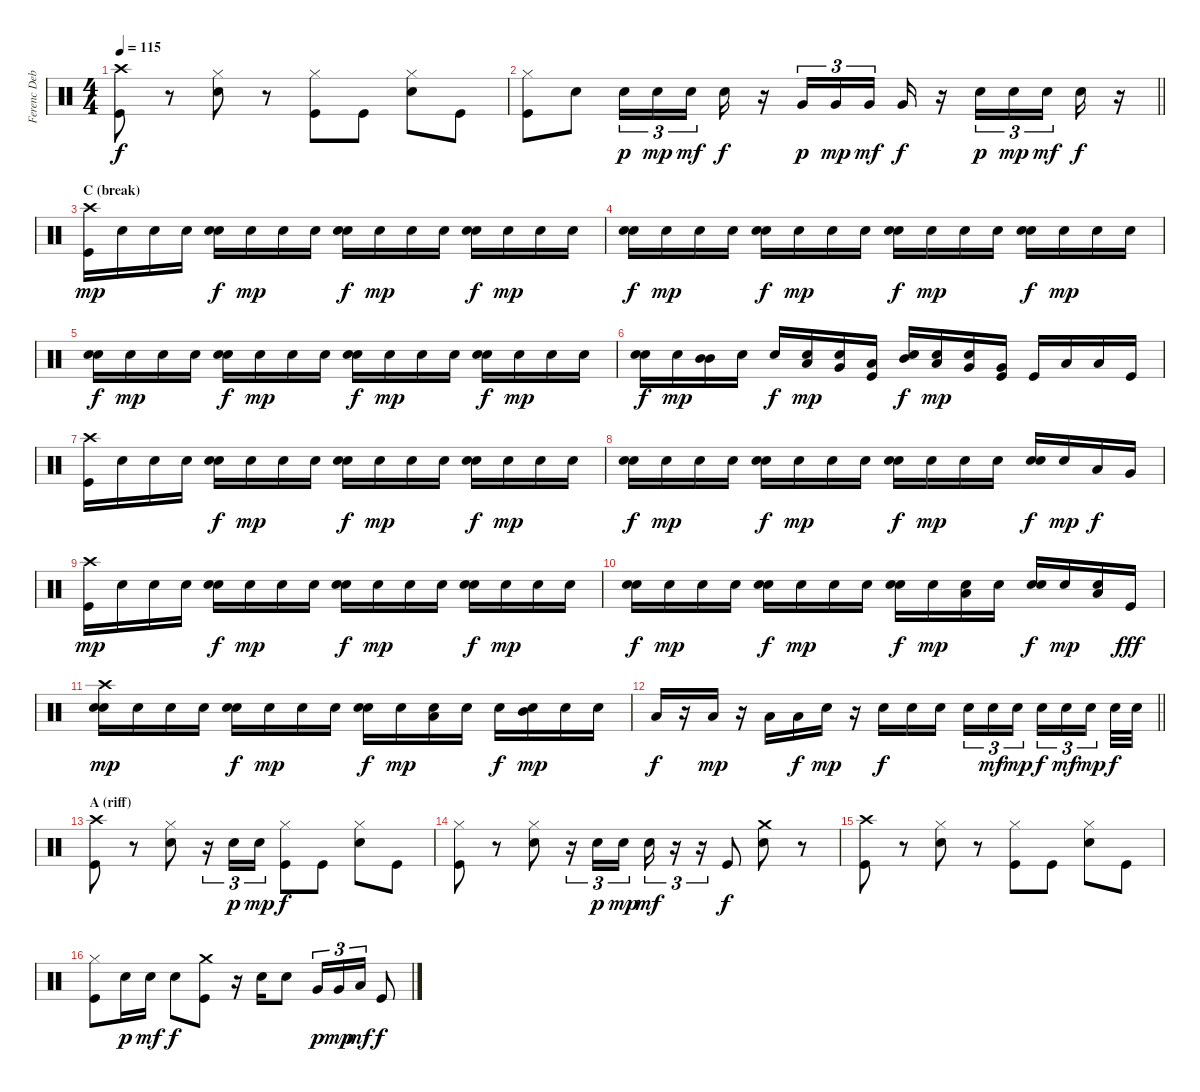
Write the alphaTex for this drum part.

\track ("Ferenc Debreceni \"Ciki\" (Drums)" "Ferenc Deb") {instrument percussion}
\staff {score}
\articulation defaults
\ts (4 4)
\tempo 115
\clef neutral
\ks c
("Crash high (hit)" "Kick (hit)").8{dy f} r.8 ("Hi-Hat (closed)" "Electric Snare (hit)").8 r.8 ("Hi-Hat (closed)" "Kick (hit)").8 "Kick (hit)".8 ("Hi-Hat (closed)" "Electric Snare (hit)").8 "Kick (hit)".8 |
\barLineRight lightlight
("Hi-Hat (closed)" "Kick (hit)").8 "Electric Snare (hit)".8 "Electric Snare (hit)".16{tu (3 2) dy p} "Electric Snare (hit)".16{tu (3 2) dy mp} "Electric Snare (hit)".16{tu (3 2) dy mf beam splitsecondary} "Electric Snare (hit)".16{dy f} r.16 "Very Low Tom (hit)".16{tu (3 2) dy p} "Very Low Tom (hit)".16{tu (3 2) dy mp} "Very Low Tom (hit)".16{tu (3 2) dy mf beam splitsecondary} "Very Low Tom (hit)".16{dy f} r.16 "Electric Snare (hit)".16{tu (3 2) dy p} "Electric Snare (hit)".16{tu (3 2) dy mp} "Electric Snare (hit)".16{tu (3 2) dy mf beam splitsecondary} "Electric Snare (hit)".16{dy f} r.16 |
\section ("" "C (break)")
("Crash high (hit)" "Kick (hit)").16{dy mp} "Electric Snare (hit)".16 "Electric Snare (hit)".16 "Electric Snare (hit)".16 ("Electric Snare (hit)" "Electric Snare (hit)").16{dy f} "Electric Snare (hit)".16{dy mp} "Electric Snare (hit)".16 "Electric Snare (hit)".16 ("Electric Snare (hit)" "Electric Snare (hit)").16{dy f} "Electric Snare (hit)".16{dy mp} "Electric Snare (hit)".16 "Electric Snare (hit)".16 ("Electric Snare (hit)" "Electric Snare (hit)").16{dy f} "Electric Snare (hit)".16{dy mp} "Electric Snare (hit)".16 "Electric Snare (hit)".16 |
("Electric Snare (hit)" "Electric Snare (hit)").16{dy f} "Electric Snare (hit)".16{dy mp} "Electric Snare (hit)".16 "Electric Snare (hit)".16 ("Electric Snare (hit)" "Electric Snare (hit)").16{dy f} "Electric Snare (hit)".16{dy mp} "Electric Snare (hit)".16 "Electric Snare (hit)".16 ("Electric Snare (hit)" "Electric Snare (hit)").16{dy f} "Electric Snare (hit)".16{dy mp} "Electric Snare (hit)".16 "Electric Snare (hit)".16 ("Electric Snare (hit)" "Electric Snare (hit)").16{dy f} "Electric Snare (hit)".16{dy mp} "Electric Snare (hit)".16 "Electric Snare (hit)".16 |
("Electric Snare (hit)" "Electric Snare (hit)").16{dy f} "Electric Snare (hit)".16{dy mp} "Electric Snare (hit)".16 "Electric Snare (hit)".16 ("Electric Snare (hit)" "Electric Snare (hit)").16{dy f} "Electric Snare (hit)".16{dy mp} "Electric Snare (hit)".16 "Electric Snare (hit)".16 ("Electric Snare (hit)" "Electric Snare (hit)").16{dy f} "Electric Snare (hit)".16{dy mp} "Electric Snare (hit)".16 "Electric Snare (hit)".16 ("Electric Snare (hit)" "Electric Snare (hit)").16{dy f} "Electric Snare (hit)".16{dy mp} "Electric Snare (hit)".16 "Electric Snare (hit)".16 |
("Electric Snare (hit)" "Electric Snare (hit)").16{dy f} "Electric Snare (hit)".16{dy mp} ("Mid Tom (hit)" "Mid Tom (hit)").16 "Electric Snare (hit)".16 "Electric Snare (hit)".16{dy f} ("Low Tom (hit)" "Electric Snare (hit)").16{dy mp} ("Very Low Tom (hit)" "Electric Snare (hit)").16 ("Low Floor Tom (hit)" "Kick (hit)").16 ("Mid Tom (hit)" "Electric Snare (hit)").16{dy f} ("Low Tom (hit)" "Electric Snare (hit)").16{dy mp} ("Very Low Tom (hit)" "Electric Snare (hit)").16 ("Very Low Tom (hit)" "Kick (hit)").16 "Kick (hit)".16 "Low Tom (hit)".16 "Low Tom (hit)".16 "Kick (hit)".16 |
("Crash high (hit)" "Kick (hit)").16 "Electric Snare (hit)".16 "Electric Snare (hit)".16 "Electric Snare (hit)".16 ("Electric Snare (hit)" "Electric Snare (hit)").16{dy f} "Electric Snare (hit)".16{dy mp} "Electric Snare (hit)".16 "Electric Snare (hit)".16 ("Electric Snare (hit)" "Electric Snare (hit)").16{dy f} "Electric Snare (hit)".16{dy mp} "Electric Snare (hit)".16 "Electric Snare (hit)".16 ("Electric Snare (hit)" "Electric Snare (hit)").16{dy f} "Electric Snare (hit)".16{dy mp} "Electric Snare (hit)".16 "Electric Snare (hit)".16 |
("Electric Snare (hit)" "Electric Snare (hit)").16{dy f} "Electric Snare (hit)".16{dy mp} "Electric Snare (hit)".16 "Electric Snare (hit)".16 ("Electric Snare (hit)" "Electric Snare (hit)").16{dy f} "Electric Snare (hit)".16{dy mp} "Electric Snare (hit)".16 "Electric Snare (hit)".16 ("Electric Snare (hit)" "Electric Snare (hit)").16{dy f} "Electric Snare (hit)".16{dy mp} "Electric Snare (hit)".16 "Electric Snare (hit)".16 ("Electric Snare (hit)" "Electric Snare (hit)").16{dy f} "Electric Snare (hit)".16{dy mp} "Low Tom (hit)".16{dy f} "Very Low Tom (hit)".16 |
("Crash high (hit)" "Kick (hit)").16{dy mp} "Electric Snare (hit)".16 "Electric Snare (hit)".16 "Electric Snare (hit)".16 ("Electric Snare (hit)" "Electric Snare (hit)").16{dy f} "Electric Snare (hit)".16{dy mp} "Electric Snare (hit)".16 "Electric Snare (hit)".16 ("Electric Snare (hit)" "Electric Snare (hit)").16{dy f} "Electric Snare (hit)".16{dy mp} "Electric Snare (hit)".16 "Electric Snare (hit)".16 ("Electric Snare (hit)" "Electric Snare (hit)").16{dy f} "Electric Snare (hit)".16{dy mp} "Electric Snare (hit)".16 "Electric Snare (hit)".16 |
("Electric Snare (hit)" "Electric Snare (hit)").16{dy f} "Electric Snare (hit)".16{dy mp} "Electric Snare (hit)".16 "Electric Snare (hit)".16 ("Electric Snare (hit)" "Electric Snare (hit)").16{dy f} "Electric Snare (hit)".16{dy mp} "Electric Snare (hit)".16 "Electric Snare (hit)".16 ("Electric Snare (hit)" "Electric Snare (hit)").16{dy f} "Electric Snare (hit)".16{dy mp} ("Low Tom (hit)" "Electric Snare (hit)").16 "Electric Snare (hit)".16 ("Electric Snare (hit)" "Electric Snare (hit)").16{dy f} "Electric Snare (hit)".16{dy mp} ("Low Floor Tom (hit)" "Electric Snare (hit)").16 "Kick (hit)".16{dy fff} |
("Crash high (hit)" "Electric Snare (hit)" "Electric Snare (hit)").16{dy mp} "Electric Snare (hit)".16 "Electric Snare (hit)".16 "Electric Snare (hit)".16 ("Electric Snare (hit)" "Electric Snare (hit)").16{dy f} "Electric Snare (hit)".16{dy mp} "Electric Snare (hit)".16 "Electric Snare (hit)".16 ("Electric Snare (hit)" "Electric Snare (hit)").16{dy f} "Electric Snare (hit)".16{dy mp} ("Low Tom (hit)" "Electric Snare (hit)").16 "Electric Snare (hit)".16 "Electric Snare (hit)".16{dy f} ("Mid Tom (hit)" "Electric Snare (hit)").16{dy mp} "Electric Snare (hit)".16 "Electric Snare (hit)".16 |
\barLineRight lightlight "Low Tom (hit)".16{dy f}
r.16 "Low Tom (hit)".16{dy mp} r.16 "Low Tom (hit)".16 "Low Tom (hit)".16{dy f} "Electric Snare (hit)".16{dy mp} r.16 "Electric Snare (hit)".16{dy f} "Electric Snare (hit)".16 "Electric Snare (hit)".16{beam splitsecondary} "Electric Snare (hit)".16{tu (3 2)} "Electric Snare (hit)".16{tu (3 2) dy mf} "Electric Snare (hit)".16{tu (3 2) dy mp beam splitsecondary} "Electric Snare (hit)".16{tu (3 2) dy f} "Electric Snare (hit)".16{tu (3 2) dy mf} "Electric Snare (hit)".16{tu (3 2) dy mp beam splitsecondary} "Electric Snare (hit)".32{dy f} "Electric Snare (hit)".32 |
\section ("" "A (riff)")
("Crash high (hit)" "Kick (hit)").8 r.8 ("Hi-Hat (closed)" "Electric Snare (hit)").8 r.16{tu (3 2)} "Electric Snare (hit)".16{tu (3 2) dy p} "Electric Snare (hit)".16{tu (3 2) dy mp} ("Hi-Hat (closed)" "Kick (hit)").8{dy f} "Kick (hit)".8 ("Hi-Hat (closed)" "Electric Snare (hit)").8 "Kick (hit)".8 |
("Hi-Hat (closed)" "Kick (hit)").8 r.8 ("Hi-Hat (closed)" "Electric Snare (hit)").8 r.16{tu (3 2)} "Electric Snare (hit)".16{tu (3 2) dy p} "Electric Snare (hit)".16{tu (3 2) dy mp} "Electric Snare (hit)".16{tu (3 2) dy mf} r.16{tu (3 2)} r.16{tu (3 2)} "Kick (hit)".8{dy f} ("Crash medium (hit)" "Electric Snare (hit)").8 r.8 |
("Crash high (hit)" "Kick (hit)").8 r.8 ("Hi-Hat (closed)" "Electric Snare (hit)").8 r.8 ("Hi-Hat (closed)" "Kick (hit)").8 "Kick (hit)".8 ("Hi-Hat (closed)" "Electric Snare (hit)").8 "Kick (hit)".8 |
("Hi-Hat (closed)" "Kick (hit)").8 "Electric Snare (hit)".16{dy p} "Electric Snare (hit)".16{dy mf} "Electric Snare (hit)".8{dy f} ("Crash medium (hit)" "Kick (hit)").8 r.16 "Electric Snare (hit)".16 "Electric Snare (hit)".8 "Very Low Tom (hit)".16{tu (3 2) dy p} "Very Low Tom (hit)".16{tu (3 2) dy mp} "Low Floor Tom (hit)".16{tu (3 2) dy mf} "Kick (hit)".8{dy f}
